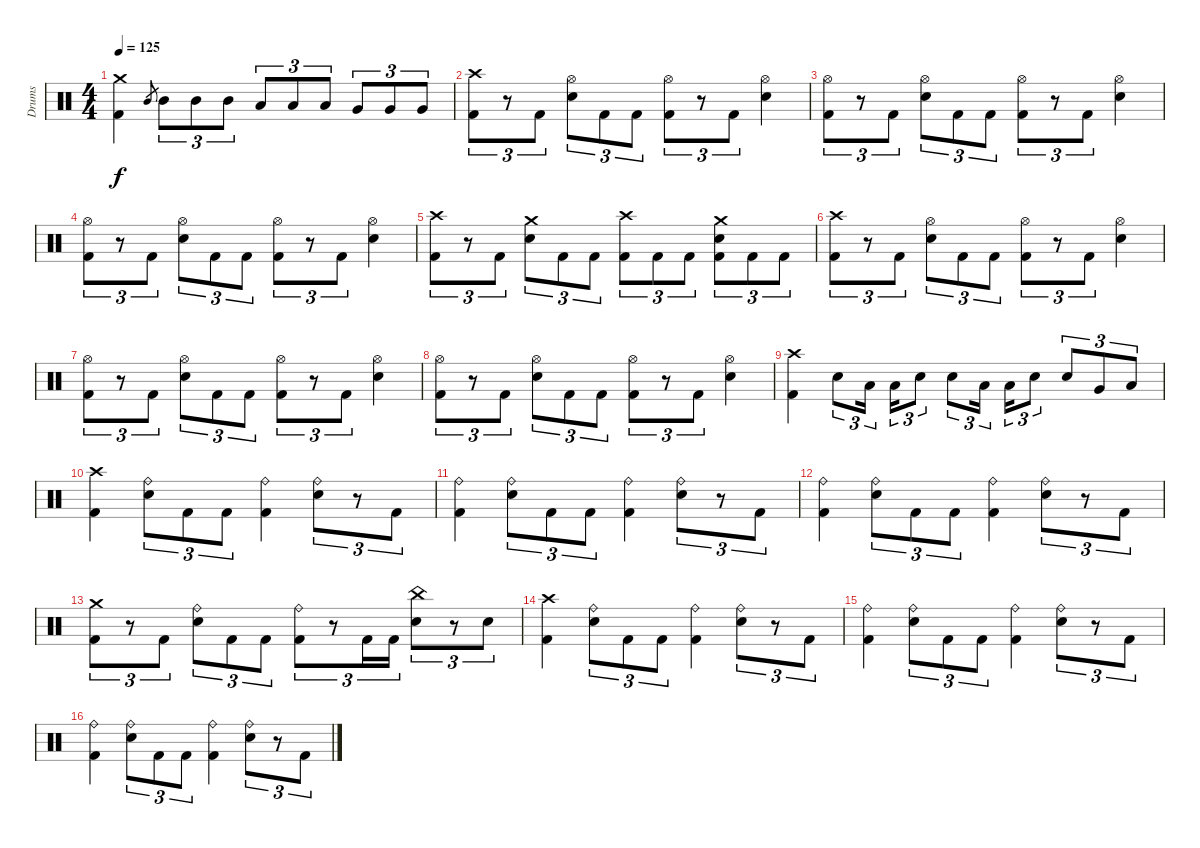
\track ("Drums" "Drums") {instrument percussion}
\staff {score}
\articulation defaults
\ts (4 4)
\tempo 125
\clef neutral
\ks c
("Crash medium (hit)" "Kick (hit) 2").4{dy f} "Mid Tom (hit)".8{gr} "Mid Tom (hit)".8{tu (3 2)} "Mid Tom (hit)".8{tu (3 2)} "Mid Tom (hit)".8{tu (3 2)} "Low Tom (hit)".8{tu (3 2)} "Low Tom (hit)".8{tu (3 2)} "Low Tom (hit)".8{tu (3 2)} "Very Low Tom (hit)".8{tu (3 2)} "Very Low Tom (hit)".8{tu (3 2)} "Very Low Tom (hit)".8{tu (3 2)} |
("Crash high (hit)" "Kick (hit) 2").8{tu (3 2)} r.8{tu (3 2)} "Kick (hit) 2".8{tu (3 2)} ("Hi-Hat (open)" "Electric Snare (hit)").8{tu (3 2)} "Kick (hit) 2".8{tu (3 2)} "Kick (hit) 2".8{tu (3 2)} ("Hi-Hat (open)" "Kick (hit) 2").8{tu (3 2)} r.8{tu (3 2)} "Kick (hit) 2".8{tu (3 2)} ("Hi-Hat (open)" "Electric Snare (hit)").4 |
("Hi-Hat (open)" "Kick (hit) 2").8{tu (3 2)} r.8{tu (3 2)} "Kick (hit) 2".8{tu (3 2)} ("Hi-Hat (open)" "Electric Snare (hit)").8{tu (3 2)} "Kick (hit) 2".8{tu (3 2)} "Kick (hit) 2".8{tu (3 2)} ("Hi-Hat (open)" "Kick (hit) 2").8{tu (3 2)} r.8{tu (3 2)} "Kick (hit) 2".8{tu (3 2)} ("Hi-Hat (open)" "Electric Snare (hit)").4 |
("Hi-Hat (open)" "Kick (hit) 2").8{tu (3 2)} r.8{tu (3 2)} "Kick (hit) 2".8{tu (3 2)} ("Hi-Hat (open)" "Electric Snare (hit)").8{tu (3 2)} "Kick (hit) 2".8{tu (3 2)} "Kick (hit) 2".8{tu (3 2)} ("Hi-Hat (open)" "Kick (hit) 2").8{tu (3 2)} r.8{tu (3 2)} "Kick (hit) 2".8{tu (3 2)} ("Hi-Hat (open)" "Electric Snare (hit)").4 |
("Crash high (hit)" "Kick (hit) 2").8{tu (3 2)} r.8{tu (3 2)} "Kick (hit) 2".8{tu (3 2)} ("Crash medium (hit)" "Electric Snare (hit)").8{tu (3 2)} "Kick (hit) 2".8{tu (3 2)} "Kick (hit) 2".8{tu (3 2)} ("Crash high (hit)" "Kick (hit) 2").8{tu (3 2)} "Kick (hit) 2".8{tu (3 2)} "Kick (hit) 2".8{tu (3 2)} ("Crash medium (hit)" "Electric Snare (hit)" "Kick (hit) 2").8{tu (3 2)} "Kick (hit) 2".8{tu (3 2)} "Kick (hit) 2".8{tu (3 2)} |
("Crash high (hit)" "Kick (hit) 2").8{tu (3 2)} r.8{tu (3 2)} "Kick (hit) 2".8{tu (3 2)} ("Hi-Hat (open)" "Electric Snare (hit)").8{tu (3 2)} "Kick (hit) 2".8{tu (3 2)} "Kick (hit) 2".8{tu (3 2)} ("Hi-Hat (open)" "Kick (hit) 2").8{tu (3 2)} r.8{tu (3 2)} "Kick (hit) 2".8{tu (3 2)} ("Hi-Hat (open)" "Electric Snare (hit)").4 |
("Hi-Hat (open)" "Kick (hit) 2").8{tu (3 2)} r.8{tu (3 2)} "Kick (hit) 2".8{tu (3 2)} ("Hi-Hat (open)" "Electric Snare (hit)").8{tu (3 2)} "Kick (hit) 2".8{tu (3 2)} "Kick (hit) 2".8{tu (3 2)} ("Hi-Hat (open)" "Kick (hit) 2").8{tu (3 2)} r.8{tu (3 2)} "Kick (hit) 2".8{tu (3 2)} ("Hi-Hat (open)" "Electric Snare (hit)").4 |
("Hi-Hat (open)" "Kick (hit) 2").8{tu (3 2)} r.8{tu (3 2)} "Kick (hit) 2".8{tu (3 2)} ("Hi-Hat (open)" "Electric Snare (hit)").8{tu (3 2)} "Kick (hit) 2".8{tu (3 2)} "Kick (hit) 2".8{tu (3 2)} ("Hi-Hat (open)" "Kick (hit) 2").8{tu (3 2)} r.8{tu (3 2)} "Kick (hit) 2".8{tu (3 2)} ("Hi-Hat (open)" "Electric Snare (hit)").4 |
("Crash high (hit)" "Kick (hit) 2").4 "Electric Snare (hit)".8{tu (3 2)} "Low Tom (hit)".16{tu (3 2)} "Low Tom (hit)".16{tu (3 2)} "Electric Snare (hit)".8{tu (3 2)} "Electric Snare (hit)".8{tu (3 2)} "Low Tom (hit)".16{tu (3 2)} "Low Tom (hit)".16{tu (3 2)} "Electric Snare (hit)".8{tu (3 2)} "Electric Snare (hit)".8{tu (3 2)} "Very Low Tom (hit)".8{tu (3 2)} "Low Floor Tom (hit)".8{tu (3 2)} |
("Crash high (hit)" "Kick (hit) 2").4 ("Ride (bell)" "Electric Snare (hit)").8{tu (3 2)} "Kick (hit) 2".8{tu (3 2)} "Kick (hit) 2".8{tu (3 2)} ("Ride (bell)" "Kick (hit) 2").4 ("Ride (bell)" "Electric Snare (hit)").8{tu (3 2)} r.8{tu (3 2)} "Kick (hit) 2".8{tu (3 2)} |
("Ride (bell)" "Kick (hit) 2").4 ("Ride (bell)" "Electric Snare (hit)").8{tu (3 2)} "Kick (hit) 2".8{tu (3 2)} "Kick (hit) 2".8{tu (3 2)} ("Ride (bell)" "Kick (hit) 2").4 ("Ride (bell)" "Electric Snare (hit)").8{tu (3 2)} r.8{tu (3 2)} "Kick (hit) 2".8{tu (3 2)} |
("Ride (bell)" "Kick (hit) 2").4 ("Ride (bell)" "Electric Snare (hit)").8{tu (3 2)} "Kick (hit) 2".8{tu (3 2)} "Kick (hit) 2".8{tu (3 2)} ("Ride (bell)" "Kick (hit) 2").4 ("Ride (bell)" "Electric Snare (hit)").8{tu (3 2)} r.8{tu (3 2)} "Kick (hit) 2".8{tu (3 2)} |
("Crash medium (hit)" "Kick (hit) 2").8{tu (3 2)} r.8{tu (3 2)} "Kick (hit) 2".8{tu (3 2)} ("Ride (bell)" "Electric Snare (hit)").8{tu (3 2)} "Kick (hit) 2".8{tu (3 2)} "Kick (hit) 2".8{tu (3 2)} ("Ride (bell)" "Kick (hit) 2").8{tu (3 2)} r.8{tu (3 2)} "Kick (hit) 2".16{tu (3 2)} "Kick (hit) 2".16{tu (3 2)} ("China (hit)" "Electric Snare (hit)").8{tu (3 2)} r.8{tu (3 2)} "Electric Snare (hit)".8{tu (3 2)} |
("Crash high (hit)" "Kick (hit) 2").4 ("Ride (bell)" "Electric Snare (hit)").8{tu (3 2)} "Kick (hit) 2".8{tu (3 2)} "Kick (hit) 2".8{tu (3 2)} ("Ride (bell)" "Kick (hit) 2").4 ("Ride (bell)" "Electric Snare (hit)").8{tu (3 2)} r.8{tu (3 2)} "Kick (hit) 2".8{tu (3 2)} |
("Ride (bell)" "Kick (hit) 2").4 ("Ride (bell)" "Electric Snare (hit)").8{tu (3 2)} "Kick (hit) 2".8{tu (3 2)} "Kick (hit) 2".8{tu (3 2)} ("Ride (bell)" "Kick (hit) 2").4 ("Ride (bell)" "Electric Snare (hit)").8{tu (3 2)} r.8{tu (3 2)} "Kick (hit) 2".8{tu (3 2)} |
("Ride (bell)" "Kick (hit) 2").4 ("Ride (bell)" "Electric Snare (hit)").8{tu (3 2)} "Kick (hit) 2".8{tu (3 2)} "Kick (hit) 2".8{tu (3 2)} ("Ride (bell)" "Kick (hit) 2").4 ("Ride (bell)" "Electric Snare (hit)").8{tu (3 2)} r.8{tu (3 2)} "Kick (hit) 2".8{tu (3 2)}
